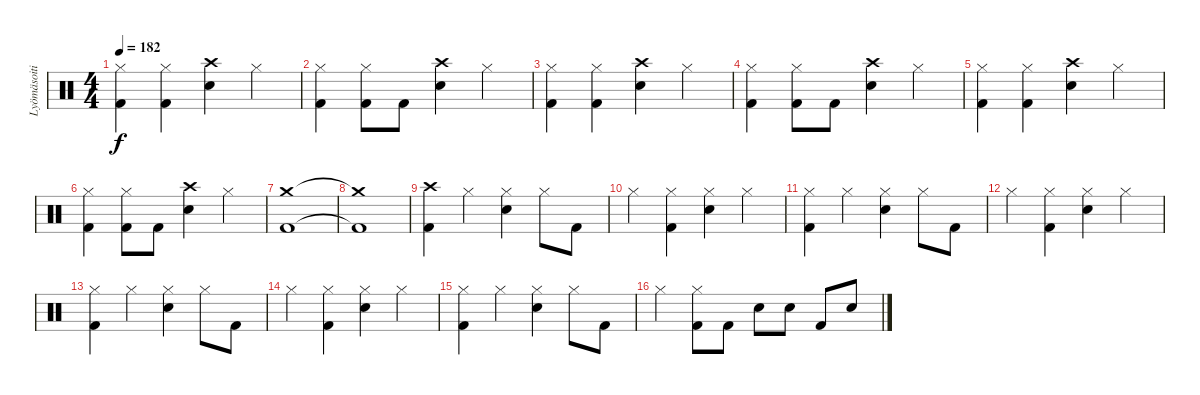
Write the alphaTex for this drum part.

\track ("Lyömäsoitin" "Lyömäsoiti") {instrument percussion}
\staff {score}
\articulation defaults
\ts (4 4)
\tempo 182
\clef neutral
\ks c
("Hi-Hat (closed)" "Kick (hit) 2").4{dy f} ("Hi-Hat (closed)" "Kick (hit) 2").4 ("Crash high (hit)" "Electric Snare (hit)").4 "Hi-Hat (closed)".4 |
("Hi-Hat (closed)" "Kick (hit) 2").4 ("Hi-Hat (closed)" "Kick (hit) 2").8 "Kick (hit) 2".8 ("Crash high (hit)" "Electric Snare (hit)").4 "Hi-Hat (closed)".4 |
("Hi-Hat (closed)" "Kick (hit) 2").4 ("Hi-Hat (closed)" "Kick (hit) 2").4 ("Crash high (hit)" "Electric Snare (hit)").4 "Hi-Hat (closed)".4 |
("Hi-Hat (closed)" "Kick (hit) 2").4 ("Hi-Hat (closed)" "Kick (hit) 2").8 "Kick (hit) 2".8 ("Crash high (hit)" "Electric Snare (hit)").4 "Hi-Hat (closed)".4 |
("Hi-Hat (closed)" "Kick (hit) 2").4 ("Hi-Hat (closed)" "Kick (hit) 2").4 ("Crash high (hit)" "Electric Snare (hit)").4 "Hi-Hat (closed)".4 |
("Hi-Hat (closed)" "Kick (hit) 2").4 ("Hi-Hat (closed)" "Kick (hit) 2").8 "Kick (hit) 2".8 ("Crash high (hit)" "Electric Snare (hit)").4 "Hi-Hat (closed)".4 |
("Crash medium (hit)" "Kick (hit) 2").1 |
("Crash medium (hit)"{t} "Kick (hit) 2"{t}).1 |
("Crash high (hit)" "Kick (hit) 2").4 "Hi-Hat (closed)".4 ("Hi-Hat (closed)" "Electric Snare (hit)").4 "Hi-Hat (closed)".8 "Kick (hit) 2".8 |
"Hi-Hat (closed)".4 ("Hi-Hat (closed)" "Kick (hit) 2").4 ("Hi-Hat (closed)" "Electric Snare (hit)").4 "Hi-Hat (closed)".4 |
("Hi-Hat (closed)" "Kick (hit) 2").4 "Hi-Hat (closed)".4 ("Hi-Hat (closed)" "Electric Snare (hit)").4 "Hi-Hat (closed)".8 "Kick (hit) 2".8 |
"Hi-Hat (closed)".4 ("Hi-Hat (closed)" "Kick (hit) 2").4 ("Hi-Hat (closed)" "Electric Snare (hit)").4 "Hi-Hat (closed)".4 |
("Hi-Hat (closed)" "Kick (hit) 2").4 "Hi-Hat (closed)".4 ("Hi-Hat (closed)" "Electric Snare (hit)").4 "Hi-Hat (closed)".8 "Kick (hit) 2".8 |
"Hi-Hat (closed)".4 ("Hi-Hat (closed)" "Kick (hit) 2").4 ("Hi-Hat (closed)" "Electric Snare (hit)").4 "Hi-Hat (closed)".4 |
("Hi-Hat (closed)" "Kick (hit) 2").4 "Hi-Hat (closed)".4 ("Hi-Hat (closed)" "Electric Snare (hit)").4 "Hi-Hat (closed)".8 "Kick (hit) 2".8 |
"Hi-Hat (closed)".4 ("Hi-Hat (closed)" "Kick (hit) 2").8 "Kick (hit) 2".8 "Electric Snare (hit)".8 "Electric Snare (hit)".8 "Kick (hit) 2".8 "Electric Snare (hit)".8
